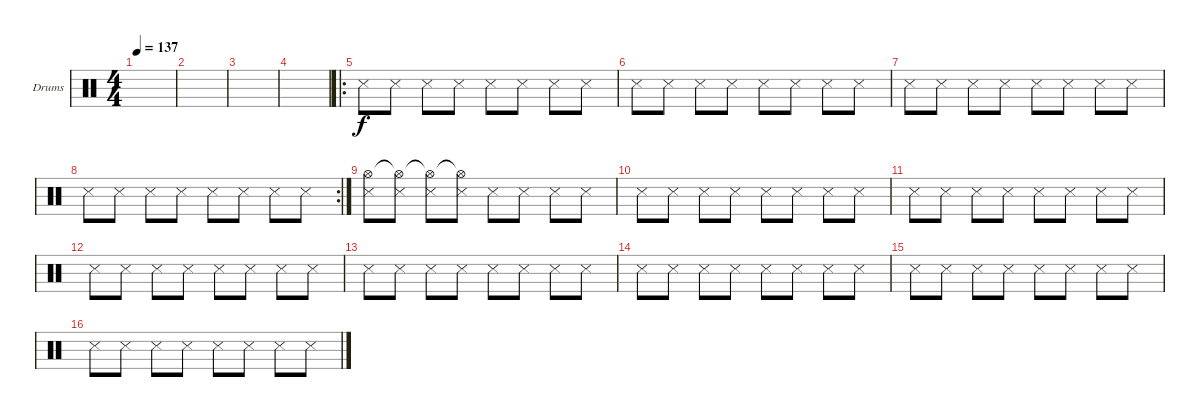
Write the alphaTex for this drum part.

\defaultSystemsLayout 4
\bracketExtendMode groupsimilarinstruments
\firstSystemTrackNameOrientation horizontal
\otherSystemsTrackNameOrientation horizontal
\track ("Drumkit" "Drums") {instrument percussion}
\staff {score}
\articulation defaults
\ts (4 4)
\tempo 137
\clef neutral
\scale
0.472222
\ks c
|
\scale
0.263889 |
\scale
0.263889 |
\scale
0.311475 |
\ro
\scale
0.377049 "Snare (side stick) 3".8 "Snare (side stick) 3".8 "Snare (side stick) 3".8 "Snare (side stick) 3".8 "Snare (side stick) 3".8 "Snare (side stick) 3".8 "Snare (side stick) 3".8 "Snare (side stick) 3".8 |
\scale
0.311475 "Snare (side stick) 3".8 "Snare (side stick) 3".8 "Snare (side stick) 3".8 "Snare (side stick) 3".8 "Snare (side stick) 3".8 "Snare (side stick) 3".8 "Snare (side stick) 3".8 "Snare (side stick) 3".8 |
\scale
0.322034 "Snare (side stick) 3".8 "Snare (side stick) 3".8 "Snare (side stick) 3".8 "Snare (side stick) 3".8 "Snare (side stick) 3".8 "Snare (side stick) 3".8 "Snare (side stick) 3".8 "Snare (side stick) 3".8 |
\rc 2
\scale
0.355932 "Snare (side stick) 3".8 "Snare (side stick) 3".8 "Snare (side stick) 3".8 "Snare (side stick) 3".8 "Snare (side stick) 3".8 "Snare (side stick) 3".8 "Snare (side stick) 3".8 "Snare (side stick) 3".8 |
\scale
0.322034 ("Snare (side stick) 3" "Hi-Hat (open)").8 ("Snare (side stick) 3" "Hi-Hat (open)"{t}).8 ("Snare (side stick) 3" "Hi-Hat (open)"{t}).8 ("Snare (side stick) 3" "Hi-Hat (open)"{t}).8 "Snare (side stick) 3".8 "Snare (side stick) 3".8 "Snare (side stick) 3".8 "Snare (side stick) 3".8 |
"Snare (side stick) 3".8 "Snare (side stick) 3".8 "Snare (side stick) 3".8 "Snare (side stick) 3".8 "Snare (side stick) 3".8 "Snare (side stick) 3".8 "Snare (side stick) 3".8 "Snare (side stick) 3".8 |
"Snare (side stick) 3".8 "Snare (side stick) 3".8 "Snare (side stick) 3".8 "Snare (side stick) 3".8 "Snare (side stick) 3".8 "Snare (side stick) 3".8 "Snare (side stick) 3".8 "Snare (side stick) 3".8 |
"Snare (side stick) 3".8 "Snare (side stick) 3".8 "Snare (side stick) 3".8 "Snare (side stick) 3".8 "Snare (side stick) 3".8 "Snare (side stick) 3".8 "Snare (side stick) 3".8 "Snare (side stick) 3".8 |
"Snare (side stick) 3".8 "Snare (side stick) 3".8 "Snare (side stick) 3".8 "Snare (side stick) 3".8 "Snare (side stick) 3".8 "Snare (side stick) 3".8 "Snare (side stick) 3".8 "Snare (side stick) 3".8 |
"Snare (side stick) 3".8 "Snare (side stick) 3".8 "Snare (side stick) 3".8 "Snare (side stick) 3".8 "Snare (side stick) 3".8 "Snare (side stick) 3".8 "Snare (side stick) 3".8 "Snare (side stick) 3".8 |
"Snare (side stick) 3".8 "Snare (side stick) 3".8 "Snare (side stick) 3".8 "Snare (side stick) 3".8 "Snare (side stick) 3".8 "Snare (side stick) 3".8 "Snare (side stick) 3".8 "Snare (side stick) 3".8 |
"Snare (side stick) 3".8 "Snare (side stick) 3".8 "Snare (side stick) 3".8 "Snare (side stick) 3".8 "Snare (side stick) 3".8 "Snare (side stick) 3".8 "Snare (side stick) 3".8 "Snare (side stick) 3".8
